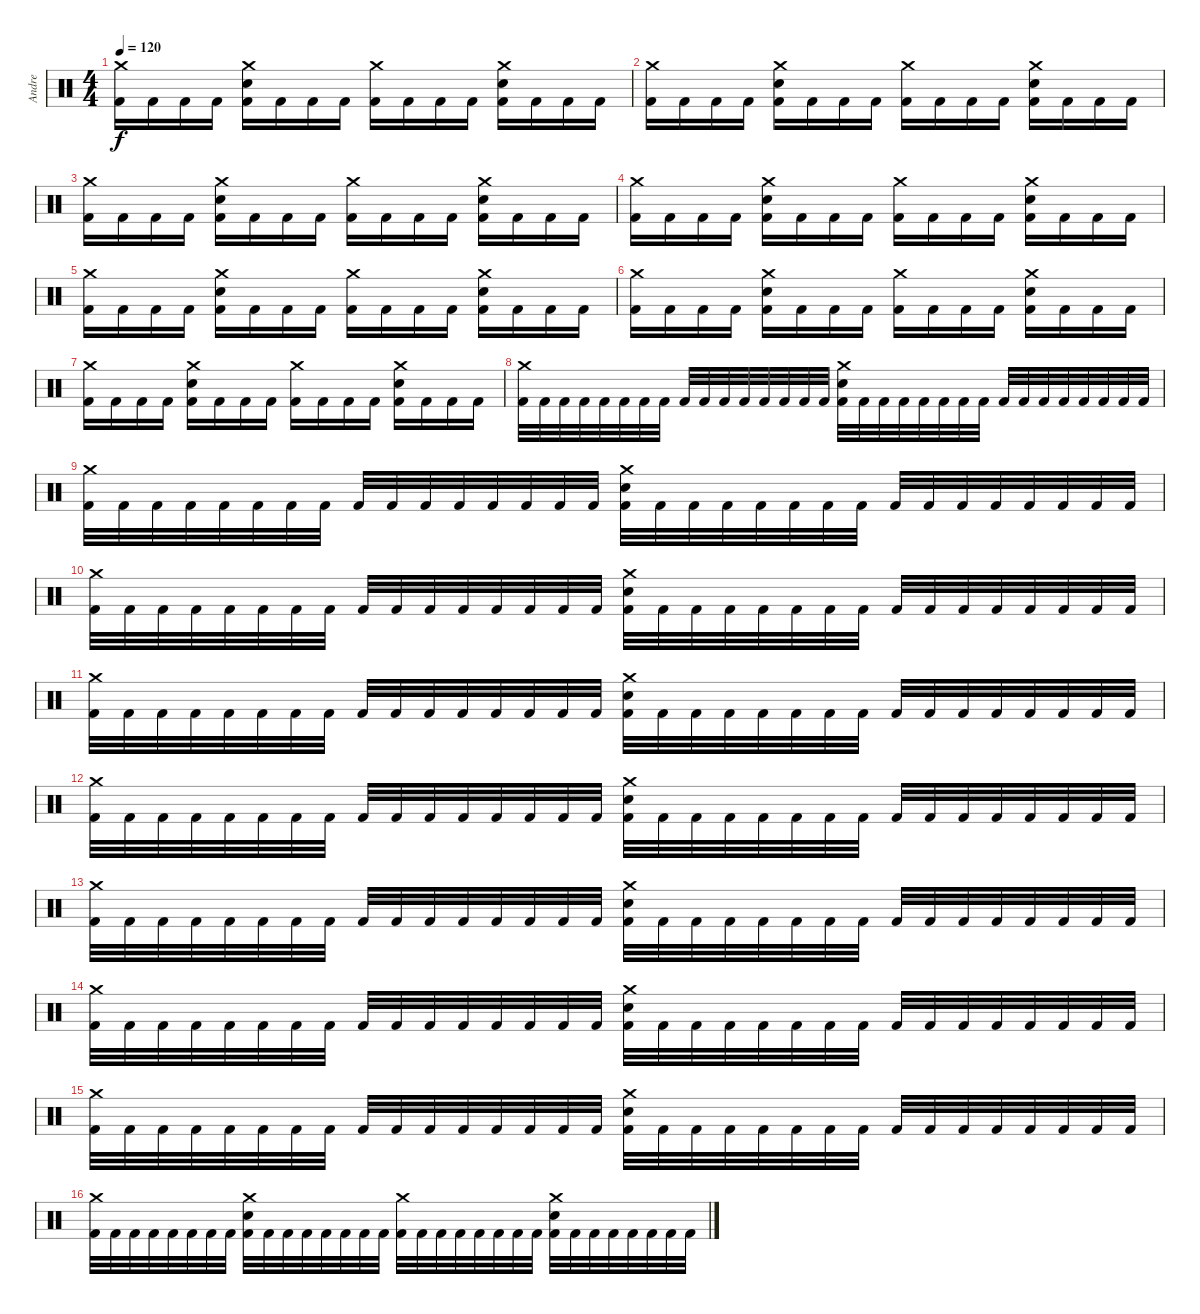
\track ("Andre" "Andre") {instrument percussion}
\staff {score}
\articulation defaults
\ts (4 4)
\tempo 120
\clef neutral
\ks c
("Crash medium (hit)" "Kick (hit) 2").16{dy f} "Kick (hit) 2".16 "Kick (hit) 2".16 "Kick (hit) 2".16 ("Crash medium (hit)" "Snare (hit) 2" "Kick (hit) 2").16 "Kick (hit) 2".16 "Kick (hit) 2".16 "Kick (hit) 2".16 ("Crash medium (hit)" "Kick (hit) 2").16 "Kick (hit) 2".16 "Kick (hit) 2".16 "Kick (hit) 2".16 ("Crash medium (hit)" "Snare (hit) 2" "Kick (hit) 2").16 "Kick (hit) 2".16 "Kick (hit) 2".16 "Kick (hit) 2".16 |
("Crash medium (hit)" "Kick (hit) 2").16 "Kick (hit) 2".16 "Kick (hit) 2".16 "Kick (hit) 2".16 ("Crash medium (hit)" "Snare (hit) 2" "Kick (hit) 2").16 "Kick (hit) 2".16 "Kick (hit) 2".16 "Kick (hit) 2".16 ("Crash medium (hit)" "Kick (hit) 2").16 "Kick (hit) 2".16 "Kick (hit) 2".16 "Kick (hit) 2".16 ("Crash medium (hit)" "Snare (hit) 2" "Kick (hit) 2").16 "Kick (hit) 2".16 "Kick (hit) 2".16 "Kick (hit) 2".16 |
("Crash medium (hit)" "Kick (hit) 2").16 "Kick (hit) 2".16 "Kick (hit) 2".16 "Kick (hit) 2".16 ("Crash medium (hit)" "Snare (hit) 2" "Kick (hit) 2").16 "Kick (hit) 2".16 "Kick (hit) 2".16 "Kick (hit) 2".16 ("Crash medium (hit)" "Kick (hit) 2").16 "Kick (hit) 2".16 "Kick (hit) 2".16 "Kick (hit) 2".16 ("Crash medium (hit)" "Snare (hit) 2" "Kick (hit) 2").16 "Kick (hit) 2".16 "Kick (hit) 2".16 "Kick (hit) 2".16 |
("Crash medium (hit)" "Kick (hit) 2").16 "Kick (hit) 2".16 "Kick (hit) 2".16 "Kick (hit) 2".16 ("Crash medium (hit)" "Snare (hit) 2" "Kick (hit) 2").16 "Kick (hit) 2".16 "Kick (hit) 2".16 "Kick (hit) 2".16 ("Crash medium (hit)" "Kick (hit) 2").16 "Kick (hit) 2".16 "Kick (hit) 2".16 "Kick (hit) 2".16 ("Crash medium (hit)" "Snare (hit) 2" "Kick (hit) 2").16 "Kick (hit) 2".16 "Kick (hit) 2".16 "Kick (hit) 2".16 |
("Crash medium (hit)" "Kick (hit) 2").16 "Kick (hit) 2".16 "Kick (hit) 2".16 "Kick (hit) 2".16 ("Crash medium (hit)" "Snare (hit) 2" "Kick (hit) 2").16 "Kick (hit) 2".16 "Kick (hit) 2".16 "Kick (hit) 2".16 ("Crash medium (hit)" "Kick (hit) 2").16 "Kick (hit) 2".16 "Kick (hit) 2".16 "Kick (hit) 2".16 ("Crash medium (hit)" "Snare (hit) 2" "Kick (hit) 2").16 "Kick (hit) 2".16 "Kick (hit) 2".16 "Kick (hit) 2".16 |
("Crash medium (hit)" "Kick (hit) 2").16 "Kick (hit) 2".16 "Kick (hit) 2".16 "Kick (hit) 2".16 ("Crash medium (hit)" "Snare (hit) 2" "Kick (hit) 2").16 "Kick (hit) 2".16 "Kick (hit) 2".16 "Kick (hit) 2".16 ("Crash medium (hit)" "Kick (hit) 2").16 "Kick (hit) 2".16 "Kick (hit) 2".16 "Kick (hit) 2".16 ("Crash medium (hit)" "Snare (hit) 2" "Kick (hit) 2").16 "Kick (hit) 2".16 "Kick (hit) 2".16 "Kick (hit) 2".16 |
("Crash medium (hit)" "Kick (hit) 2").16 "Kick (hit) 2".16 "Kick (hit) 2".16 "Kick (hit) 2".16 ("Crash medium (hit)" "Snare (hit) 2" "Kick (hit) 2").16 "Kick (hit) 2".16 "Kick (hit) 2".16 "Kick (hit) 2".16 ("Crash medium (hit)" "Kick (hit) 2").16 "Kick (hit) 2".16 "Kick (hit) 2".16 "Kick (hit) 2".16 ("Crash medium (hit)" "Snare (hit) 2" "Kick (hit) 2").16 "Kick (hit) 2".16 "Kick (hit) 2".16 "Kick (hit) 2".16 |
("Crash medium (hit)" "Kick (hit) 2").32 "Kick (hit) 2".32 "Kick (hit) 2".32 "Kick (hit) 2".32 "Kick (hit) 2".32 "Kick (hit) 2".32 "Kick (hit) 2".32 "Kick (hit) 2".32 "Kick (hit) 2".32 "Kick (hit) 2".32 "Kick (hit) 2".32 "Kick (hit) 2".32 "Kick (hit) 2".32 "Kick (hit) 2".32 "Kick (hit) 2".32 "Kick (hit) 2".32 ("Crash medium (hit)" "Snare (hit) 2" "Kick (hit) 2").32 "Kick (hit) 2".32 "Kick (hit) 2".32 "Kick (hit) 2".32 "Kick (hit) 2".32 "Kick (hit) 2".32 "Kick (hit) 2".32 "Kick (hit) 2".32 "Kick (hit) 2".32 "Kick (hit) 2".32 "Kick (hit) 2".32 "Kick (hit) 2".32 "Kick (hit) 2".32 "Kick (hit) 2".32 "Kick (hit) 2".32 "Kick (hit) 2".32 |
("Crash medium (hit)" "Kick (hit) 2").32 "Kick (hit) 2".32 "Kick (hit) 2".32 "Kick (hit) 2".32 "Kick (hit) 2".32 "Kick (hit) 2".32 "Kick (hit) 2".32 "Kick (hit) 2".32 "Kick (hit) 2".32 "Kick (hit) 2".32 "Kick (hit) 2".32 "Kick (hit) 2".32 "Kick (hit) 2".32 "Kick (hit) 2".32 "Kick (hit) 2".32 "Kick (hit) 2".32 ("Crash medium (hit)" "Snare (hit) 2" "Kick (hit) 2").32 "Kick (hit) 2".32 "Kick (hit) 2".32 "Kick (hit) 2".32 "Kick (hit) 2".32 "Kick (hit) 2".32 "Kick (hit) 2".32 "Kick (hit) 2".32 "Kick (hit) 2".32 "Kick (hit) 2".32 "Kick (hit) 2".32 "Kick (hit) 2".32 "Kick (hit) 2".32 "Kick (hit) 2".32 "Kick (hit) 2".32 "Kick (hit) 2".32 |
("Crash medium (hit)" "Kick (hit) 2").32 "Kick (hit) 2".32 "Kick (hit) 2".32 "Kick (hit) 2".32 "Kick (hit) 2".32 "Kick (hit) 2".32 "Kick (hit) 2".32 "Kick (hit) 2".32 "Kick (hit) 2".32 "Kick (hit) 2".32 "Kick (hit) 2".32 "Kick (hit) 2".32 "Kick (hit) 2".32 "Kick (hit) 2".32 "Kick (hit) 2".32 "Kick (hit) 2".32 ("Crash medium (hit)" "Snare (hit) 2" "Kick (hit) 2").32 "Kick (hit) 2".32 "Kick (hit) 2".32 "Kick (hit) 2".32 "Kick (hit) 2".32 "Kick (hit) 2".32 "Kick (hit) 2".32 "Kick (hit) 2".32 "Kick (hit) 2".32 "Kick (hit) 2".32 "Kick (hit) 2".32 "Kick (hit) 2".32 "Kick (hit) 2".32 "Kick (hit) 2".32 "Kick (hit) 2".32 "Kick (hit) 2".32 |
("Crash medium (hit)" "Kick (hit) 2").32 "Kick (hit) 2".32 "Kick (hit) 2".32 "Kick (hit) 2".32 "Kick (hit) 2".32 "Kick (hit) 2".32 "Kick (hit) 2".32 "Kick (hit) 2".32 "Kick (hit) 2".32 "Kick (hit) 2".32 "Kick (hit) 2".32 "Kick (hit) 2".32 "Kick (hit) 2".32 "Kick (hit) 2".32 "Kick (hit) 2".32 "Kick (hit) 2".32 ("Crash medium (hit)" "Snare (hit) 2" "Kick (hit) 2").32 "Kick (hit) 2".32 "Kick (hit) 2".32 "Kick (hit) 2".32 "Kick (hit) 2".32 "Kick (hit) 2".32 "Kick (hit) 2".32 "Kick (hit) 2".32 "Kick (hit) 2".32 "Kick (hit) 2".32 "Kick (hit) 2".32 "Kick (hit) 2".32 "Kick (hit) 2".32 "Kick (hit) 2".32 "Kick (hit) 2".32 "Kick (hit) 2".32 |
("Crash medium (hit)" "Kick (hit) 2").32 "Kick (hit) 2".32 "Kick (hit) 2".32 "Kick (hit) 2".32 "Kick (hit) 2".32 "Kick (hit) 2".32 "Kick (hit) 2".32 "Kick (hit) 2".32 "Kick (hit) 2".32 "Kick (hit) 2".32 "Kick (hit) 2".32 "Kick (hit) 2".32 "Kick (hit) 2".32 "Kick (hit) 2".32 "Kick (hit) 2".32 "Kick (hit) 2".32 ("Crash medium (hit)" "Snare (hit) 2" "Kick (hit) 2").32 "Kick (hit) 2".32 "Kick (hit) 2".32 "Kick (hit) 2".32 "Kick (hit) 2".32 "Kick (hit) 2".32 "Kick (hit) 2".32 "Kick (hit) 2".32 "Kick (hit) 2".32 "Kick (hit) 2".32 "Kick (hit) 2".32 "Kick (hit) 2".32 "Kick (hit) 2".32 "Kick (hit) 2".32 "Kick (hit) 2".32 "Kick (hit) 2".32 |
("Crash medium (hit)" "Kick (hit) 2").32 "Kick (hit) 2".32 "Kick (hit) 2".32 "Kick (hit) 2".32 "Kick (hit) 2".32 "Kick (hit) 2".32 "Kick (hit) 2".32 "Kick (hit) 2".32 "Kick (hit) 2".32 "Kick (hit) 2".32 "Kick (hit) 2".32 "Kick (hit) 2".32 "Kick (hit) 2".32 "Kick (hit) 2".32 "Kick (hit) 2".32 "Kick (hit) 2".32 ("Crash medium (hit)" "Snare (hit) 2" "Kick (hit) 2").32 "Kick (hit) 2".32 "Kick (hit) 2".32 "Kick (hit) 2".32 "Kick (hit) 2".32 "Kick (hit) 2".32 "Kick (hit) 2".32 "Kick (hit) 2".32 "Kick (hit) 2".32 "Kick (hit) 2".32 "Kick (hit) 2".32 "Kick (hit) 2".32 "Kick (hit) 2".32 "Kick (hit) 2".32 "Kick (hit) 2".32 "Kick (hit) 2".32 |
("Crash medium (hit)" "Kick (hit) 2").32 "Kick (hit) 2".32 "Kick (hit) 2".32 "Kick (hit) 2".32 "Kick (hit) 2".32 "Kick (hit) 2".32 "Kick (hit) 2".32 "Kick (hit) 2".32 "Kick (hit) 2".32 "Kick (hit) 2".32 "Kick (hit) 2".32 "Kick (hit) 2".32 "Kick (hit) 2".32 "Kick (hit) 2".32 "Kick (hit) 2".32 "Kick (hit) 2".32 ("Crash medium (hit)" "Snare (hit) 2" "Kick (hit) 2").32 "Kick (hit) 2".32 "Kick (hit) 2".32 "Kick (hit) 2".32 "Kick (hit) 2".32 "Kick (hit) 2".32 "Kick (hit) 2".32 "Kick (hit) 2".32 "Kick (hit) 2".32 "Kick (hit) 2".32 "Kick (hit) 2".32 "Kick (hit) 2".32 "Kick (hit) 2".32 "Kick (hit) 2".32 "Kick (hit) 2".32 "Kick (hit) 2".32 |
("Crash medium (hit)" "Kick (hit) 2").32 "Kick (hit) 2".32 "Kick (hit) 2".32 "Kick (hit) 2".32 "Kick (hit) 2".32 "Kick (hit) 2".32 "Kick (hit) 2".32 "Kick (hit) 2".32 "Kick (hit) 2".32 "Kick (hit) 2".32 "Kick (hit) 2".32 "Kick (hit) 2".32 "Kick (hit) 2".32 "Kick (hit) 2".32 "Kick (hit) 2".32 "Kick (hit) 2".32 ("Crash medium (hit)" "Snare (hit) 2" "Kick (hit) 2").32 "Kick (hit) 2".32 "Kick (hit) 2".32 "Kick (hit) 2".32 "Kick (hit) 2".32 "Kick (hit) 2".32 "Kick (hit) 2".32 "Kick (hit) 2".32 "Kick (hit) 2".32 "Kick (hit) 2".32 "Kick (hit) 2".32 "Kick (hit) 2".32 "Kick (hit) 2".32 "Kick (hit) 2".32 "Kick (hit) 2".32 "Kick (hit) 2".32 |
("Crash medium (hit)" "Kick (hit) 2").32 "Kick (hit) 2".32 "Kick (hit) 2".32 "Kick (hit) 2".32 "Kick (hit) 2".32 "Kick (hit) 2".32 "Kick (hit) 2".32 "Kick (hit) 2".32 ("Crash medium (hit)" "Snare (hit) 2" "Kick (hit) 2").32 "Kick (hit) 2".32 "Kick (hit) 2".32 "Kick (hit) 2".32 "Kick (hit) 2".32 "Kick (hit) 2".32 "Kick (hit) 2".32 "Kick (hit) 2".32 ("Crash medium (hit)" "Kick (hit) 2").32 "Kick (hit) 2".32 "Kick (hit) 2".32 "Kick (hit) 2".32 "Kick (hit) 2".32 "Kick (hit) 2".32 "Kick (hit) 2".32 "Kick (hit) 2".32 ("Crash medium (hit)" "Snare (hit) 2" "Kick (hit) 2").32 "Kick (hit) 2".32 "Kick (hit) 2".32 "Kick (hit) 2".32 "Kick (hit) 2".32 "Kick (hit) 2".32 "Kick (hit) 2".32 "Kick (hit) 2".32
